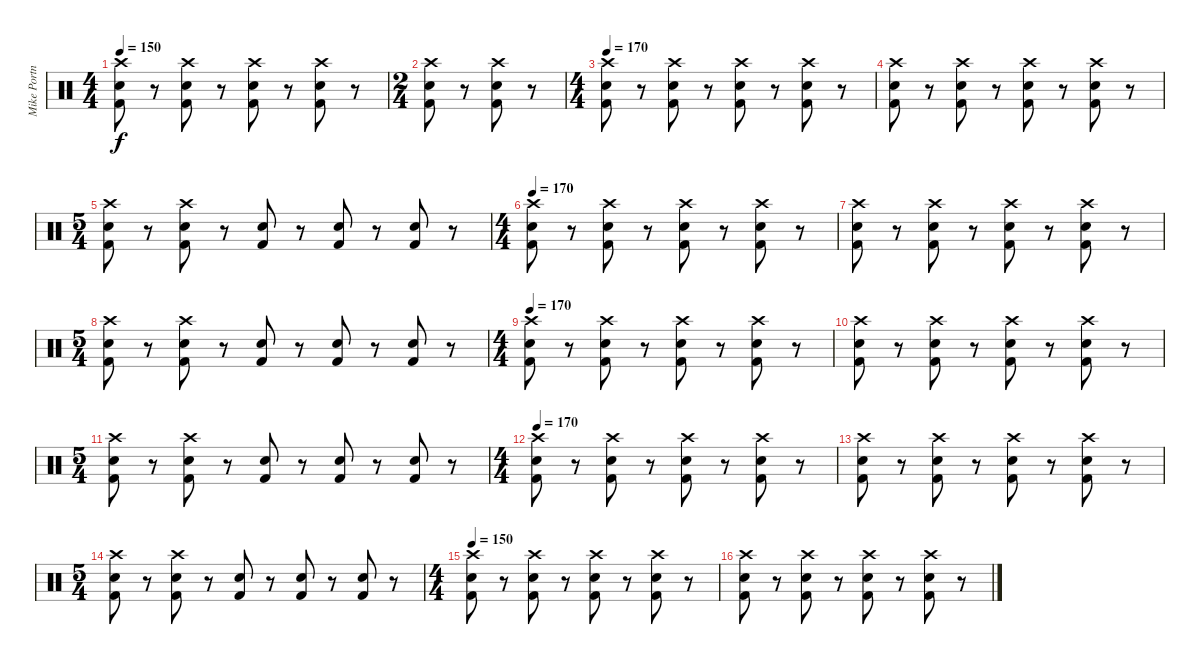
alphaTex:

\track ("Mike Portnoy" "Mike Portn") {instrument percussion}
\staff {score}
\articulation defaults
\ts (4 4)
\tempo 150
\clef neutral
\ks c
("Crash high (hit)" "Electric Snare (hit)" "Kick (hit) 2").8{dy f} r.8 ("Crash high (hit)" "Electric Snare (hit)" "Kick (hit) 2").8 r.8 ("Crash high (hit)" "Electric Snare (hit)" "Kick (hit) 2").8 r.8 ("Crash high (hit)" "Electric Snare (hit)" "Kick (hit) 2").8 r.8 |
\ts (2 4)
("Crash high (hit)" "Electric Snare (hit)" "Kick (hit) 2").8 r.8 ("Crash high (hit)" "Electric Snare (hit)" "Kick (hit) 2").8 r.8 |
\ts (4 4)
\tempo 170
("Crash high (hit)" "Electric Snare (hit)" "Kick (hit) 2").8 r.8 ("Crash high (hit)" "Electric Snare (hit)" "Kick (hit) 2").8 r.8 ("Crash high (hit)" "Electric Snare (hit)" "Kick (hit) 2").8 r.8 ("Crash high (hit)" "Electric Snare (hit)" "Kick (hit) 2").8 r.8 |
("Crash high (hit)" "Electric Snare (hit)" "Kick (hit) 2").8 r.8 ("Crash high (hit)" "Electric Snare (hit)" "Kick (hit) 2").8 r.8 ("Crash high (hit)" "Electric Snare (hit)" "Kick (hit) 2").8 r.8 ("Crash high (hit)" "Electric Snare (hit)" "Kick (hit) 2").8 r.8 |
\ts (5 4)
("Crash high (hit)" "Electric Snare (hit)" "Kick (hit) 2").8 r.8 ("Crash high (hit)" "Electric Snare (hit)" "Kick (hit) 2").8 r.8 ("Electric Snare (hit)" "Kick (hit) 2").8 r.8 ("Electric Snare (hit)" "Kick (hit) 2").8 r.8 ("Electric Snare (hit)" "Kick (hit) 2").8 r.8 |
\ts (4 4)
\tempo 170
("Crash high (hit)" "Electric Snare (hit)" "Kick (hit) 2").8 r.8 ("Crash high (hit)" "Electric Snare (hit)" "Kick (hit) 2").8 r.8 ("Crash high (hit)" "Electric Snare (hit)" "Kick (hit) 2").8 r.8 ("Crash high (hit)" "Electric Snare (hit)" "Kick (hit) 2").8 r.8 |
("Crash high (hit)" "Electric Snare (hit)" "Kick (hit) 2").8 r.8 ("Crash high (hit)" "Electric Snare (hit)" "Kick (hit) 2").8 r.8 ("Crash high (hit)" "Electric Snare (hit)" "Kick (hit) 2").8 r.8 ("Crash high (hit)" "Electric Snare (hit)" "Kick (hit) 2").8 r.8 |
\ts (5 4)
("Crash high (hit)" "Electric Snare (hit)" "Kick (hit) 2").8 r.8 ("Crash high (hit)" "Electric Snare (hit)" "Kick (hit) 2").8 r.8 ("Electric Snare (hit)" "Kick (hit) 2").8 r.8 ("Electric Snare (hit)" "Kick (hit) 2").8 r.8 ("Electric Snare (hit)" "Kick (hit) 2").8 r.8 |
\ts (4 4)
\tempo 170
("Crash high (hit)" "Electric Snare (hit)" "Kick (hit) 2").8 r.8 ("Crash high (hit)" "Electric Snare (hit)" "Kick (hit) 2").8 r.8 ("Crash high (hit)" "Electric Snare (hit)" "Kick (hit) 2").8 r.8 ("Crash high (hit)" "Electric Snare (hit)" "Kick (hit) 2").8 r.8 |
("Crash high (hit)" "Electric Snare (hit)" "Kick (hit) 2").8 r.8 ("Crash high (hit)" "Electric Snare (hit)" "Kick (hit) 2").8 r.8 ("Crash high (hit)" "Electric Snare (hit)" "Kick (hit) 2").8 r.8 ("Crash high (hit)" "Electric Snare (hit)" "Kick (hit) 2").8 r.8 |
\ts (5 4)
("Crash high (hit)" "Electric Snare (hit)" "Kick (hit) 2").8 r.8 ("Crash high (hit)" "Electric Snare (hit)" "Kick (hit) 2").8 r.8 ("Electric Snare (hit)" "Kick (hit) 2").8 r.8 ("Electric Snare (hit)" "Kick (hit) 2").8 r.8 ("Electric Snare (hit)" "Kick (hit) 2").8 r.8 |
\ts (4 4)
\tempo 170
("Crash high (hit)" "Electric Snare (hit)" "Kick (hit) 2").8 r.8 ("Crash high (hit)" "Electric Snare (hit)" "Kick (hit) 2").8 r.8 ("Crash high (hit)" "Electric Snare (hit)" "Kick (hit) 2").8 r.8 ("Crash high (hit)" "Electric Snare (hit)" "Kick (hit) 2").8 r.8 |
("Crash high (hit)" "Electric Snare (hit)" "Kick (hit) 2").8 r.8 ("Crash high (hit)" "Electric Snare (hit)" "Kick (hit) 2").8 r.8 ("Crash high (hit)" "Electric Snare (hit)" "Kick (hit) 2").8 r.8 ("Crash high (hit)" "Electric Snare (hit)" "Kick (hit) 2").8 r.8 |
\ts (5 4)
("Crash high (hit)" "Electric Snare (hit)" "Kick (hit) 2").8 r.8 ("Crash high (hit)" "Electric Snare (hit)" "Kick (hit) 2").8 r.8 ("Electric Snare (hit)" "Kick (hit) 2").8 r.8 ("Electric Snare (hit)" "Kick (hit) 2").8 r.8 ("Electric Snare (hit)" "Kick (hit) 2").8 r.8 |
\ts (4 4)
\tempo 150
("Crash high (hit)" "Electric Snare (hit)" "Kick (hit) 2").8 r.8 ("Crash high (hit)" "Electric Snare (hit)" "Kick (hit) 2").8 r.8 ("Crash high (hit)" "Electric Snare (hit)" "Kick (hit) 2").8 r.8 ("Crash high (hit)" "Electric Snare (hit)" "Kick (hit) 2").8 r.8 |
("Crash high (hit)" "Electric Snare (hit)" "Kick (hit) 2").8 r.8 ("Crash high (hit)" "Electric Snare (hit)" "Kick (hit) 2").8 r.8 ("Crash high (hit)" "Electric Snare (hit)" "Kick (hit) 2").8 r.8 ("Crash high (hit)" "Electric Snare (hit)" "Kick (hit) 2").8 r.8
